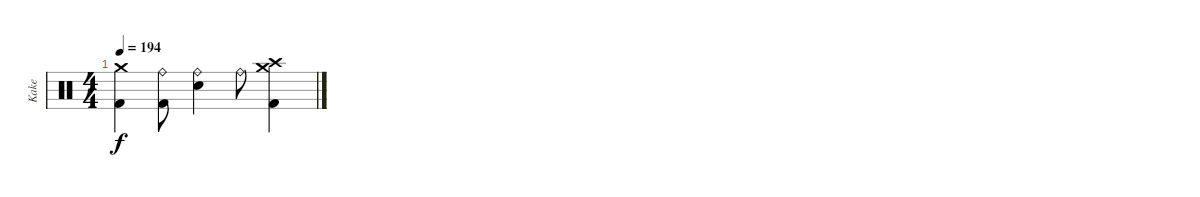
\track ("Kake" "Kake") {instrument percussion}
\staff {score}
\articulation defaults
\ts (4 4)
\tempo 194
\clef neutral
\ks c
("Crash medium (hit)" "Kick (hit) 2").4{dy f} ("Ride (bell)" "Kick (hit) 2").8 ("Ride (bell)" "Electric Snare (hit)").4 "Ride (bell)".8 ("Crash medium (hit)" "Crash high (hit)" "Kick (hit) 2").4
